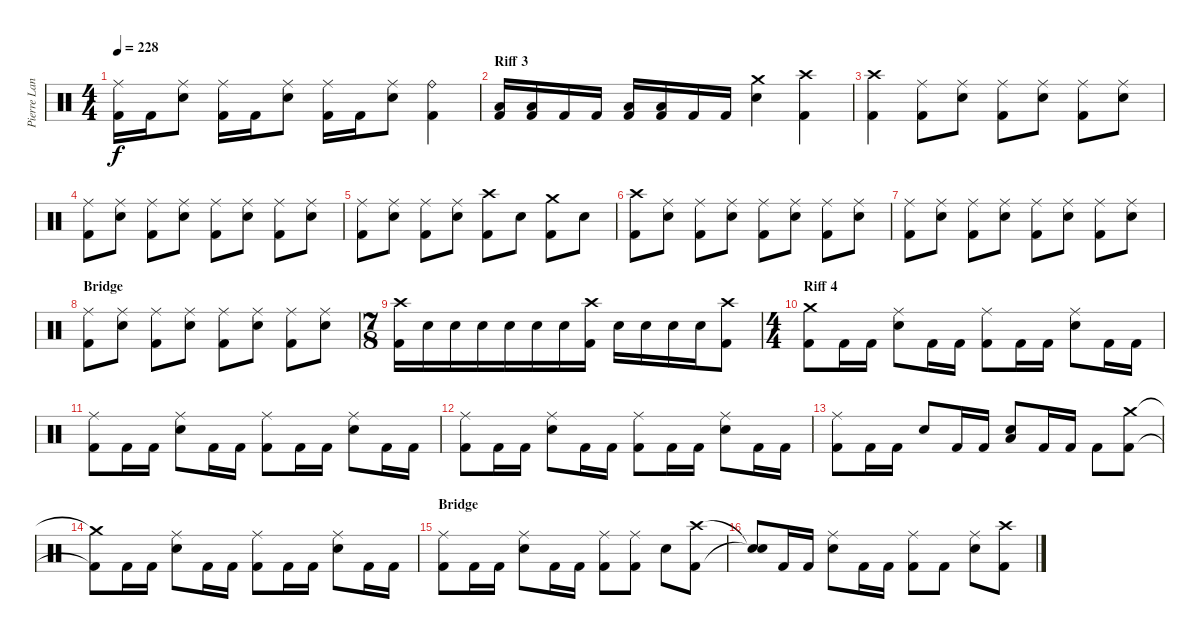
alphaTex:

\track ("Pierre Langlois (Drums)" "Pierre Lan") {instrument percussion}
\staff {score}
\articulation defaults
\ts (4 4)
\tempo 228
\clef neutral
\ks c
("Ride (middle)" "Kick (hit) 2").16{dy f} "Kick (hit) 2".16 ("Ride (middle)" "Snare (hit) 2").8 ("Ride (middle)" "Kick (hit) 2").16 "Kick (hit) 2".16 ("Ride (middle)" "Snare (hit) 2").8 ("Ride (middle)" "Kick (hit) 2").16 "Kick (hit) 2".16 ("Ride (middle)" "Snare (hit) 2").8 ("Ride (bell)" "Kick (hit) 2").4 |
\section ("" "Riff 3")
("Low Floor Tom (hit)" "Kick (hit) 2").16 ("Low Floor Tom (hit)" "Kick (hit) 2").16 "Kick (hit) 2".16 "Kick (hit) 2".16 ("Low Floor Tom (hit)" "Kick (hit) 2").16 ("Low Floor Tom (hit)" "Kick (hit) 2").16 "Kick (hit) 2".16 "Kick (hit) 2".16 ("Crash medium (hit)" "Snare (hit) 2").4 ("Crash high (hit)" "Kick (hit) 2").4 |
("Crash high (hit)" "Kick (hit) 2").4 ("Ride (middle)" "Kick (hit) 2").8 ("Ride (middle)" "Snare (hit) 2").8 ("Ride (middle)" "Kick (hit) 2").8 ("Ride (middle)" "Snare (hit) 2").8 ("Ride (middle)" "Kick (hit) 2").8 ("Ride (middle)" "Snare (hit) 2").8 |
("Ride (middle)" "Kick (hit) 2").8 ("Ride (middle)" "Snare (hit) 2").8 ("Ride (middle)" "Kick (hit) 2").8 ("Ride (middle)" "Snare (hit) 2").8 ("Ride (middle)" "Kick (hit) 2").8 ("Ride (middle)" "Snare (hit) 2").8 ("Ride (middle)" "Kick (hit) 2").8 ("Ride (middle)" "Snare (hit) 2").8 |
("Ride (middle)" "Kick (hit) 2").8 ("Ride (middle)" "Snare (hit) 2").8 ("Ride (middle)" "Kick (hit) 2").8 ("Ride (middle)" "Snare (hit) 2").8 ("Crash high (hit)" "Kick (hit) 2").8 "Snare (hit) 2".8 ("Crash medium (hit)" "Kick (hit) 2").8 "Snare (hit) 2".8 |
("Crash high (hit)" "Kick (hit) 2").8 ("Ride (middle)" "Snare (hit) 2").8 ("Ride (middle)" "Kick (hit) 2").8 ("Ride (middle)" "Snare (hit) 2").8 ("Ride (middle)" "Kick (hit) 2").8 ("Ride (middle)" "Snare (hit) 2").8 ("Ride (middle)" "Kick (hit) 2").8 ("Ride (middle)" "Snare (hit) 2").8 |
("Ride (middle)" "Kick (hit) 2").8 ("Ride (middle)" "Snare (hit) 2").8 ("Ride (middle)" "Kick (hit) 2").8 ("Ride (middle)" "Snare (hit) 2").8 ("Ride (middle)" "Kick (hit) 2").8 ("Ride (middle)" "Snare (hit) 2").8 ("Ride (middle)" "Kick (hit) 2").8 ("Ride (middle)" "Snare (hit) 2").8 |
\section ("" "Bridge")
("Ride (middle)" "Kick (hit) 2").8 ("Ride (middle)" "Snare (hit) 2").8 ("Ride (middle)" "Kick (hit) 2").8 ("Ride (middle)" "Snare (hit) 2").8 ("Ride (middle)" "Kick (hit) 2").8 ("Ride (middle)" "Snare (hit) 2").8 ("Ride (middle)" "Kick (hit) 2").8 ("Ride (middle)" "Snare (hit) 2").8 |
\ts (7 8)
("Crash high (hit)" "Kick (hit) 2").16 "Snare (hit) 2".16 "Snare (hit) 2".16 "Snare (hit) 2".16 "Snare (hit) 2".16 "Snare (hit) 2".16 "Snare (hit) 2".16 ("Crash high (hit)" "Kick (hit) 2").16 "Snare (hit) 2".16 "Snare (hit) 2".16 "Snare (hit) 2".16 "Snare (hit) 2".16 ("Crash high (hit)" "Kick (hit) 2").8 |
\ts (4 4)
\section ("" "Riff 4")
("Crash medium (hit)" "Kick (hit) 2").8 "Kick (hit) 2".16 "Kick (hit) 2".16 ("Ride (middle)" "Snare (hit) 2").8 "Kick (hit) 2".16 "Kick (hit) 2".16 ("Ride (middle)" "Kick (hit) 2").8 "Kick (hit) 2".16 "Kick (hit) 2".16 ("Ride (middle)" "Snare (hit) 2").8 "Kick (hit) 2".16 "Kick (hit) 2".16 |
("Ride (middle)" "Kick (hit) 2").8 "Kick (hit) 2".16 "Kick (hit) 2".16 ("Ride (middle)" "Snare (hit) 2").8 "Kick (hit) 2".16 "Kick (hit) 2".16 ("Kick (hit) 2" "Ride (middle)").8 "Kick (hit) 2".16 "Kick (hit) 2".16 ("Ride (middle)" "Snare (hit) 2").8 "Kick (hit) 2".16 "Kick (hit) 2".16 |
("Ride (middle)" "Kick (hit) 2").8 "Kick (hit) 2".16 "Kick (hit) 2".16 ("Ride (middle)" "Snare (hit) 2").8 "Kick (hit) 2".16 "Kick (hit) 2".16 ("Kick (hit) 2" "Ride (middle)").8 "Kick (hit) 2".16 "Kick (hit) 2".16 ("Ride (middle)" "Snare (hit) 2").8 "Kick (hit) 2".16 "Kick (hit) 2".16 |
("Ride (middle)" "Kick (hit) 2").8 "Kick (hit) 2".16 "Kick (hit) 2".16 "Snare (hit) 2".8 "Kick (hit) 2".16 "Kick (hit) 2".16 ("Low Floor Tom (hit)" "Snare (hit) 2").8 "Kick (hit) 2".16 "Kick (hit) 2".16 "Kick (hit) 2".8 ("Crash medium (hit)" "Kick (hit) 2").8 |
("Crash medium (hit)"{t} "Kick (hit) 2"{t}).8 "Kick (hit) 2".16 "Kick (hit) 2".16 ("Ride (middle)" "Snare (hit) 2").8 "Kick (hit) 2".16 "Kick (hit) 2".16 ("Ride (middle)" "Kick (hit) 2").8 "Kick (hit) 2".16 "Kick (hit) 2".16 ("Ride (middle)" "Snare (hit) 2").8 "Kick (hit) 2".16 "Kick (hit) 2".16 |
\section ("" "Bridge")
("Ride (middle)" "Kick (hit) 2").8 "Kick (hit) 2".16 "Kick (hit) 2".16 ("Ride (middle)" "Snare (hit) 2").8 "Kick (hit) 2".16 "Kick (hit) 2".16 ("Kick (hit) 2" "Ride (middle)").8 ("Ride (middle)" "Kick (hit) 2").8 "Snare (hit) 2".8 ("Crash high (hit)" "Kick (hit) 2").8 |
("Snare (hit)"{t} "Snare (hit)"{t}).8 "Kick (hit) 2".16 "Kick (hit) 2".16 ("Ride (middle)" "Snare (hit) 2").8 "Kick (hit) 2".16 "Kick (hit) 2".16 ("Ride (middle)" "Kick (hit) 2").8 "Kick (hit) 2".8 ("Ride (middle)" "Snare (hit) 2").8 ("Crash high (hit)" "Kick (hit) 2").8
